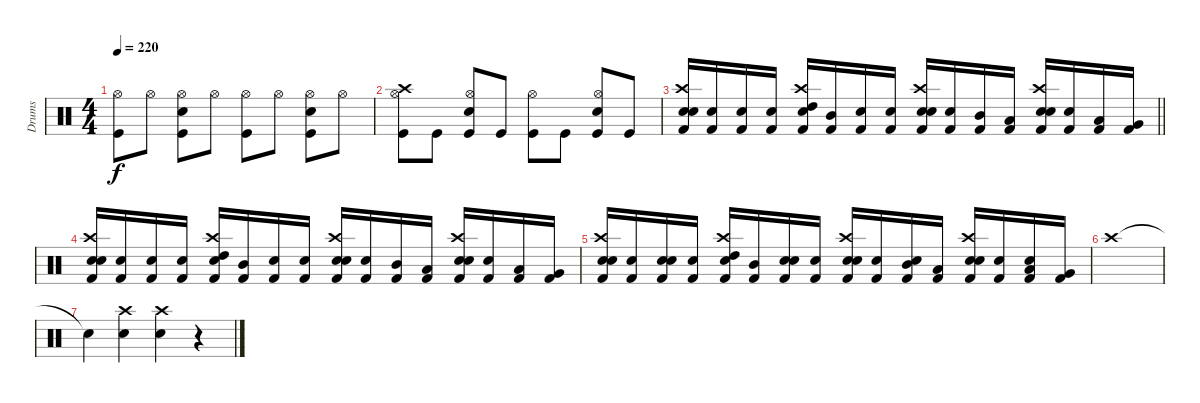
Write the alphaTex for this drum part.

\track ("Drums" "Drums") {instrument percussion}
\staff {score}
\articulation defaults
\ts (4 4)
\tempo 220
\clef neutral
\ks c
("Kick (hit)" "Hi-Hat (open)").8{dy f} "Hi-Hat (open)".8 ("Electric Snare (hit)" "Kick (hit)" "Hi-Hat (open)").8 "Hi-Hat (open)".8 ("Kick (hit)" "Hi-Hat (open)").8 "Hi-Hat (open)".8 ("Electric Snare (hit)" "Kick (hit)" "Hi-Hat (open)").8 "Hi-Hat (open)".8 |
("Crash high (hit)" "Hi-Hat (open)" "Kick (hit)").8 "Kick (hit)".8 ("Electric Snare (hit)" "Hi-Hat (open)" "Kick (hit)").8 "Kick (hit)".8 ("Hi-Hat (open)" "Kick (hit)").8 "Kick (hit)".8 ("Electric Snare (hit)" "Hi-Hat (open)" "Kick (hit)").8 "Kick (hit)".8 |
\barLineRight lightlight
("Kick (hit) 2" "Snare (hit) 2" "Electric Snare (hit)" "Crash high (hit)").16 ("Kick (hit) 2" "Snare (hit) 2").16 ("Kick (hit) 2" "Snare (hit) 2").16 ("Kick (hit) 2" "Snare (hit) 2").16 ("Kick (hit) 2" "High Tom (hit)" "Electric Snare (hit)" "Crash high (hit)").16 ("Kick (hit) 2" "Mid Tom (hit)").16 ("Kick (hit) 2" "Snare (hit) 2").16 ("Kick (hit) 2" "Snare (hit) 2").16 ("Kick (hit) 2" "Snare (hit) 2" "Electric Snare (hit)" "Crash high (hit)").16 ("Kick (hit) 2" "Snare (hit) 2").16 ("Kick (hit) 2" "Mid Tom (hit)").16 ("Kick (hit) 2" "Low Tom (hit)").16 ("Kick (hit) 2" "Snare (hit) 2" "Electric Snare (hit)" "Crash high (hit)").16 ("Kick (hit) 2" "Snare (hit) 2").16 ("Kick (hit) 2" "Low Tom (hit)").16 ("Kick (hit) 2" "Very Low Tom (hit)").16 |
("Kick (hit) 2" "Snare (hit) 2" "Electric Snare (hit)" "Crash high (hit)").16 ("Kick (hit) 2" "Snare (hit) 2").16 ("Kick (hit) 2" "Snare (hit) 2").16 ("Kick (hit) 2" "Snare (hit) 2").16 ("Kick (hit) 2" "High Tom (hit)" "Electric Snare (hit)" "Crash high (hit)").16 ("Kick (hit) 2" "Mid Tom (hit)").16 ("Kick (hit) 2" "Snare (hit) 2").16 ("Kick (hit) 2" "Snare (hit) 2").16 ("Kick (hit) 2" "Snare (hit) 2" "Electric Snare (hit)" "Crash high (hit)").16 ("Kick (hit) 2" "Snare (hit) 2").16 ("Kick (hit) 2" "Mid Tom (hit)").16 ("Kick (hit) 2" "Low Tom (hit)").16 ("Kick (hit) 2" "Snare (hit) 2" "Electric Snare (hit)" "Crash high (hit)").16 ("Kick (hit) 2" "Snare (hit) 2").16 ("Kick (hit) 2" "Low Tom (hit)").16 ("Kick (hit) 2" "Very Low Tom (hit)").16 |
("Kick (hit) 2" "Snare (hit) 2" "Electric Snare (hit)" "Crash high (hit)").16 ("Kick (hit) 2" "Snare (hit) 2").16 ("Kick (hit) 2" "Snare (hit) 2" "Electric Snare (hit)").16 ("Kick (hit) 2" "Snare (hit) 2").16 ("Kick (hit) 2" "High Tom (hit)" "Electric Snare (hit)" "Crash high (hit)").16 ("Kick (hit) 2" "Mid Tom (hit)").16 ("Kick (hit) 2" "Snare (hit) 2" "Electric Snare (hit)").16 ("Kick (hit) 2" "Snare (hit) 2").16 ("Kick (hit) 2" "Snare (hit) 2" "Electric Snare (hit)" "Crash high (hit)").16 ("Kick (hit) 2" "Snare (hit) 2").16 ("Kick (hit) 2" "Mid Tom (hit)" "Electric Snare (hit)").16 ("Kick (hit) 2" "Low Tom (hit)").16 ("Kick (hit) 2" "Snare (hit) 2" "Electric Snare (hit)" "Crash high (hit)").16 ("Kick (hit) 2" "Snare (hit) 2").16 ("Kick (hit) 2" "Low Tom (hit)" "Electric Snare (hit)").16 ("Kick (hit) 2" "Very Low Tom (hit)").16 |
"Crash high (hit)".1 |
"Snare (hit)"{t}.4 ("Crash high (hit)" "Electric Snare (hit)").4 ("Crash high (hit)" "Electric Snare (hit)").4 r.4
